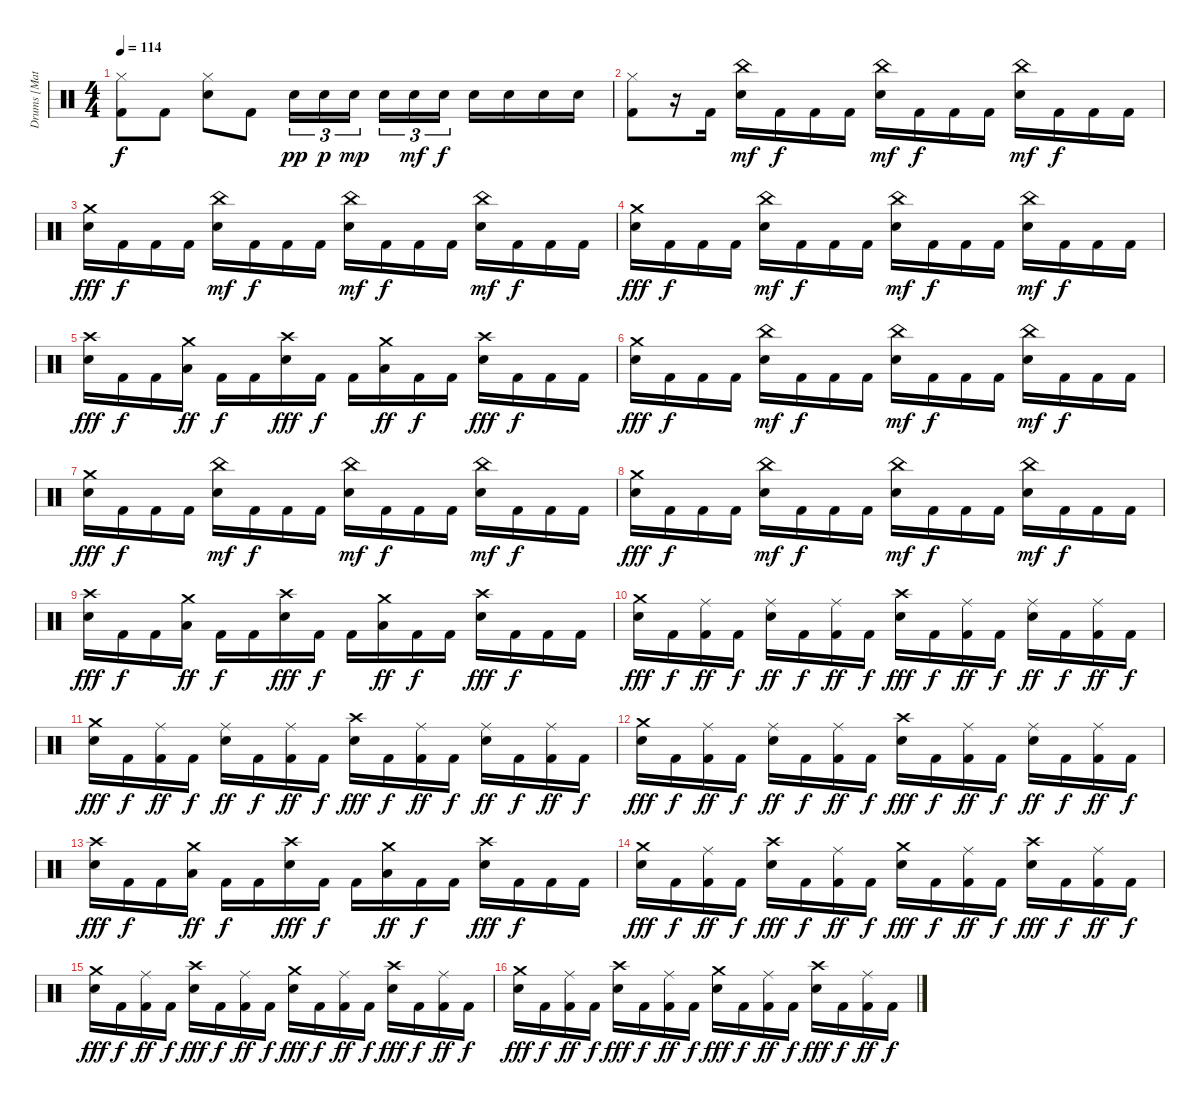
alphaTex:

\track ("Drums [Matt]" "Drums [Mat") {instrument percussion}
\staff {score}
\articulation defaults
\ts (4 4)
\tempo 114
\clef neutral
\ks c
("Hi-Hat (closed)" "Kick (hit) 2").8{dy f} "Kick (hit) 2".8 ("Hi-Hat (closed)" "Snare (hit) 2").8 "Kick (hit) 2".8 "Snare (hit) 2".16{tu (3 2) dy pp} "Snare (hit) 2".16{tu (3 2) dy p} "Snare (hit) 2".16{tu (3 2) dy mp} "Snare (hit) 2".16{tu (3 2)} "Snare (hit) 2".16{tu (3 2) dy mf} "Snare (hit) 2".16{tu (3 2) dy f} "Snare (hit) 2".16 "Snare (hit) 2".16 "Snare (hit) 2".16 "Snare (hit) 2".16 |
("Hi-Hat (closed)" "Kick (hit) 2").8 r.16 "Kick (hit) 2".16 ("Snare (hit) 2" "China (hit)").16{dy mf} "Kick (hit) 2".16{dy f} "Kick (hit) 2".16 "Kick (hit) 2".16 ("Snare (hit) 2" "China (hit)").16{dy mf} "Kick (hit) 2".16{dy f} "Kick (hit) 2".16 "Kick (hit) 2".16 ("Snare (hit) 2" "China (hit)").16{dy mf} "Kick (hit) 2".16{dy f} "Kick (hit) 2".16 "Kick (hit) 2".16 |
("Snare (hit) 2" "Crash medium (hit)").16{dy fff} "Kick (hit) 2".16{dy f} "Kick (hit) 2".16 "Kick (hit) 2".16 ("Snare (hit) 2" "China (hit)").16{dy mf} "Kick (hit) 2".16{dy f} "Kick (hit) 2".16 "Kick (hit) 2".16 ("Snare (hit) 2" "China (hit)").16{dy mf} "Kick (hit) 2".16{dy f} "Kick (hit) 2".16 "Kick (hit) 2".16 ("Snare (hit) 2" "China (hit)").16{dy mf} "Kick (hit) 2".16{dy f} "Kick (hit) 2".16 "Kick (hit) 2".16 |
("Snare (hit) 2" "Crash medium (hit)").16{dy fff} "Kick (hit) 2".16{dy f} "Kick (hit) 2".16 "Kick (hit) 2".16 ("Snare (hit) 2" "China (hit)").16{dy mf} "Kick (hit) 2".16{dy f} "Kick (hit) 2".16 "Kick (hit) 2".16 ("Snare (hit) 2" "China (hit)").16{dy mf} "Kick (hit) 2".16{dy f} "Kick (hit) 2".16 "Kick (hit) 2".16 ("Snare (hit) 2" "China (hit)").16{dy mf} "Kick (hit) 2".16{dy f} "Kick (hit) 2".16 "Kick (hit) 2".16 |
("Snare (hit) 2" "Crash high (hit)").16{dy fff} "Kick (hit) 2".16{dy f} "Kick (hit) 2".16 ("Crash medium (hit)" "Low Tom (hit)").16{dy ff} "Kick (hit) 2".16{dy f} "Kick (hit) 2".16 ("Snare (hit) 2" "Crash high (hit)").16{dy fff} "Kick (hit) 2".16{dy f} "Kick (hit) 2".16 ("Crash medium (hit)" "Low Tom (hit)").16{dy ff} "Kick (hit) 2".16{dy f} "Kick (hit) 2".16 ("Snare (hit) 2" "Crash high (hit)").16{dy fff} "Kick (hit) 2".16{dy f} "Kick (hit) 2".16 "Kick (hit) 2".16 |
("Snare (hit) 2" "Crash medium (hit)").16{dy fff} "Kick (hit) 2".16{dy f} "Kick (hit) 2".16 "Kick (hit) 2".16 ("Snare (hit) 2" "China (hit)").16{dy mf} "Kick (hit) 2".16{dy f} "Kick (hit) 2".16 "Kick (hit) 2".16 ("Snare (hit) 2" "China (hit)").16{dy mf} "Kick (hit) 2".16{dy f} "Kick (hit) 2".16 "Kick (hit) 2".16 ("Snare (hit) 2" "China (hit)").16{dy mf} "Kick (hit) 2".16{dy f} "Kick (hit) 2".16 "Kick (hit) 2".16 |
("Snare (hit) 2" "Crash medium (hit)").16{dy fff} "Kick (hit) 2".16{dy f} "Kick (hit) 2".16 "Kick (hit) 2".16 ("Snare (hit) 2" "China (hit)").16{dy mf} "Kick (hit) 2".16{dy f} "Kick (hit) 2".16 "Kick (hit) 2".16 ("Snare (hit) 2" "China (hit)").16{dy mf} "Kick (hit) 2".16{dy f} "Kick (hit) 2".16 "Kick (hit) 2".16 ("Snare (hit) 2" "China (hit)").16{dy mf} "Kick (hit) 2".16{dy f} "Kick (hit) 2".16 "Kick (hit) 2".16 |
("Snare (hit) 2" "Crash medium (hit)").16{dy fff} "Kick (hit) 2".16{dy f} "Kick (hit) 2".16 "Kick (hit) 2".16 ("Snare (hit) 2" "China (hit)").16{dy mf} "Kick (hit) 2".16{dy f} "Kick (hit) 2".16 "Kick (hit) 2".16 ("Snare (hit) 2" "China (hit)").16{dy mf} "Kick (hit) 2".16{dy f} "Kick (hit) 2".16 "Kick (hit) 2".16 ("Snare (hit) 2" "China (hit)").16{dy mf} "Kick (hit) 2".16{dy f} "Kick (hit) 2".16 "Kick (hit) 2".16 |
("Snare (hit) 2" "Crash high (hit)").16{dy fff} "Kick (hit) 2".16{dy f} "Kick (hit) 2".16 ("Crash medium (hit)" "Low Tom (hit)").16{dy ff} "Kick (hit) 2".16{dy f} "Kick (hit) 2".16 ("Snare (hit) 2" "Crash high (hit)").16{dy fff} "Kick (hit) 2".16{dy f} "Kick (hit) 2".16 ("Crash medium (hit)" "Low Tom (hit)").16{dy ff} "Kick (hit) 2".16{dy f} "Kick (hit) 2".16 ("Snare (hit) 2" "Crash high (hit)").16{dy fff} "Kick (hit) 2".16{dy f} "Kick (hit) 2".16 "Kick (hit) 2".16 |
("Snare (hit) 2" "Crash medium (hit)").16{dy fff} "Kick (hit) 2".16{dy f} ("Ride (middle)" "Kick (hit) 2").16{dy ff} "Kick (hit) 2".16{dy f} ("Ride (middle)" "Snare (hit) 2").16{dy ff} "Kick (hit) 2".16{dy f} ("Ride (middle)" "Kick (hit) 2").16{dy ff} "Kick (hit) 2".16{dy f} ("Snare (hit) 2" "Crash high (hit)").16{dy fff} "Kick (hit) 2".16{dy f} ("Ride (middle)" "Kick (hit) 2").16{dy ff} "Kick (hit) 2".16{dy f} ("Ride (middle)" "Snare (hit) 2").16{dy ff} "Kick (hit) 2".16{dy f} ("Ride (middle)" "Kick (hit) 2").16{dy ff} "Kick (hit) 2".16{dy f} |
("Snare (hit) 2" "Crash medium (hit)").16{dy fff} "Kick (hit) 2".16{dy f} ("Ride (middle)" "Kick (hit) 2").16{dy ff} "Kick (hit) 2".16{dy f} ("Ride (middle)" "Snare (hit) 2").16{dy ff} "Kick (hit) 2".16{dy f} ("Ride (middle)" "Kick (hit) 2").16{dy ff} "Kick (hit) 2".16{dy f} ("Snare (hit) 2" "Crash high (hit)").16{dy fff} "Kick (hit) 2".16{dy f} ("Ride (middle)" "Kick (hit) 2").16{dy ff} "Kick (hit) 2".16{dy f} ("Ride (middle)" "Snare (hit) 2").16{dy ff} "Kick (hit) 2".16{dy f} ("Ride (middle)" "Kick (hit) 2").16{dy ff} "Kick (hit) 2".16{dy f} |
("Snare (hit) 2" "Crash medium (hit)").16{dy fff} "Kick (hit) 2".16{dy f} ("Ride (middle)" "Kick (hit) 2").16{dy ff} "Kick (hit) 2".16{dy f} ("Ride (middle)" "Snare (hit) 2").16{dy ff} "Kick (hit) 2".16{dy f} ("Ride (middle)" "Kick (hit) 2").16{dy ff} "Kick (hit) 2".16{dy f} ("Snare (hit) 2" "Crash high (hit)").16{dy fff} "Kick (hit) 2".16{dy f} ("Ride (middle)" "Kick (hit) 2").16{dy ff} "Kick (hit) 2".16{dy f} ("Ride (middle)" "Snare (hit) 2").16{dy ff} "Kick (hit) 2".16{dy f} ("Ride (middle)" "Kick (hit) 2").16{dy ff} "Kick (hit) 2".16{dy f} |
("Snare (hit) 2" "Crash high (hit)").16{dy fff} "Kick (hit) 2".16{dy f} "Kick (hit) 2".16 ("Crash medium (hit)" "Low Tom (hit)").16{dy ff} "Kick (hit) 2".16{dy f} "Kick (hit) 2".16 ("Snare (hit) 2" "Crash high (hit)").16{dy fff} "Kick (hit) 2".16{dy f} "Kick (hit) 2".16 ("Crash medium (hit)" "Low Tom (hit)").16{dy ff} "Kick (hit) 2".16{dy f} "Kick (hit) 2".16 ("Snare (hit) 2" "Crash high (hit)").16{dy fff} "Kick (hit) 2".16{dy f} "Kick (hit) 2".16 "Kick (hit) 2".16 |
("Snare (hit) 2" "Crash medium (hit)").16{dy fff} "Kick (hit) 2".16{dy f} ("Ride (middle)" "Kick (hit) 2").16{dy ff} "Kick (hit) 2".16{dy f} ("Snare (hit) 2" "Crash high (hit)").16{dy fff} "Kick (hit) 2".16{dy f} ("Ride (middle)" "Kick (hit) 2").16{dy ff} "Kick (hit) 2".16{dy f} ("Snare (hit) 2" "Crash medium (hit)").16{dy fff} "Kick (hit) 2".16{dy f} ("Ride (middle)" "Kick (hit) 2").16{dy ff} "Kick (hit) 2".16{dy f} ("Snare (hit) 2" "Crash high (hit)").16{dy fff} "Kick (hit) 2".16{dy f} ("Ride (middle)" "Kick (hit) 2").16{dy ff} "Kick (hit) 2".16{dy f} |
("Snare (hit) 2" "Crash medium (hit)").16{dy fff} "Kick (hit) 2".16{dy f} ("Ride (middle)" "Kick (hit) 2").16{dy ff} "Kick (hit) 2".16{dy f} ("Snare (hit) 2" "Crash high (hit)").16{dy fff} "Kick (hit) 2".16{dy f} ("Ride (middle)" "Kick (hit) 2").16{dy ff} "Kick (hit) 2".16{dy f} ("Snare (hit) 2" "Crash medium (hit)").16{dy fff} "Kick (hit) 2".16{dy f} ("Ride (middle)" "Kick (hit) 2").16{dy ff} "Kick (hit) 2".16{dy f} ("Snare (hit) 2" "Crash high (hit)").16{dy fff} "Kick (hit) 2".16{dy f} ("Ride (middle)" "Kick (hit) 2").16{dy ff} "Kick (hit) 2".16{dy f} |
("Snare (hit) 2" "Crash medium (hit)").16{dy fff} "Kick (hit) 2".16{dy f} ("Ride (middle)" "Kick (hit) 2").16{dy ff} "Kick (hit) 2".16{dy f} ("Snare (hit) 2" "Crash high (hit)").16{dy fff} "Kick (hit) 2".16{dy f} ("Ride (middle)" "Kick (hit) 2").16{dy ff} "Kick (hit) 2".16{dy f} ("Snare (hit) 2" "Crash medium (hit)").16{dy fff} "Kick (hit) 2".16{dy f} ("Ride (middle)" "Kick (hit) 2").16{dy ff} "Kick (hit) 2".16{dy f} ("Snare (hit) 2" "Crash high (hit)").16{dy fff} "Kick (hit) 2".16{dy f} ("Ride (middle)" "Kick (hit) 2").16{dy ff} "Kick (hit) 2".16{dy f}
